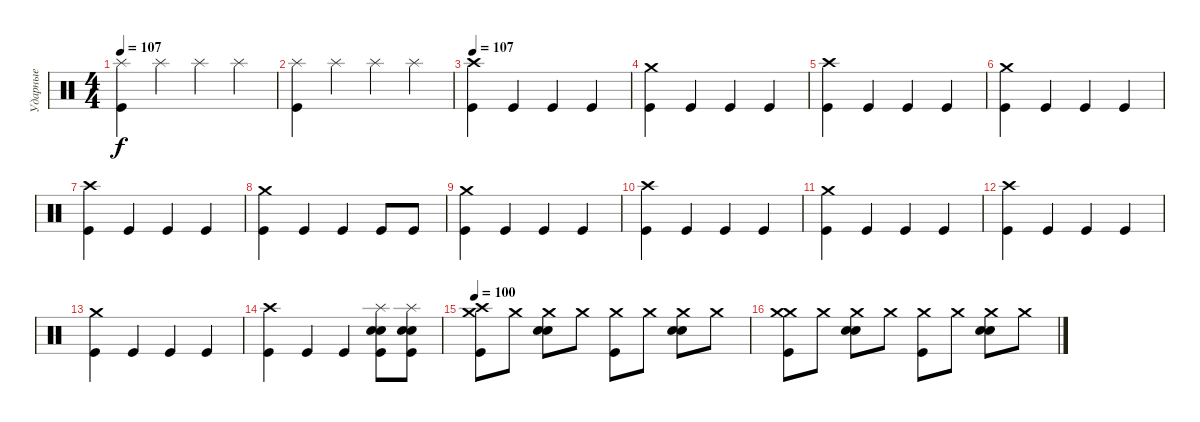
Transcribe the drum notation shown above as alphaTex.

\track ("Ударные" "Ударные") {instrument percussion}
\staff {score}
\articulation defaults
\ts (4 4)
\tempo 107
\clef neutral
\ks c
("Splash (hit)" "Kick (hit)").4{dy f} "Splash (hit)".4 "Splash (hit)".4 "Splash (hit)".4 |
("Splash (hit)" "Kick (hit)").4 "Splash (hit)".4 "Splash (hit)".4 "Splash (hit)".4 |
\tempo 107
("Crash high (hit)" "Kick (hit)").4 "Kick (hit)".4 "Kick (hit)".4 "Kick (hit)".4 |
("Crash medium (hit)" "Kick (hit)").4 "Kick (hit)".4 "Kick (hit)".4 "Kick (hit)".4 |
("Crash high (hit)" "Kick (hit)").4 "Kick (hit)".4 "Kick (hit)".4 "Kick (hit)".4 |
("Crash medium (hit)" "Kick (hit)").4 "Kick (hit)".4 "Kick (hit)".4 "Kick (hit)".4 |
("Crash high (hit)" "Kick (hit)").4 "Kick (hit)".4 "Kick (hit)".4 "Kick (hit)".4 |
("Crash medium (hit)" "Kick (hit)").4 "Kick (hit)".4 "Kick (hit)".4 "Kick (hit)".8 "Kick (hit)".8 |
("Crash medium (hit)" "Kick (hit)").4 "Kick (hit)".4 "Kick (hit)".4 "Kick (hit)".4 |
("Crash high (hit)" "Kick (hit)").4 "Kick (hit)".4 "Kick (hit)".4 "Kick (hit)".4 |
("Crash medium (hit)" "Kick (hit)").4 "Kick (hit)".4 "Kick (hit)".4 "Kick (hit)".4 |
("Crash high (hit)" "Kick (hit)").4 "Kick (hit)".4 "Kick (hit)".4 "Kick (hit)".4 |
("Crash medium (hit)" "Kick (hit)").4 "Kick (hit)".4 "Kick (hit)".4 "Kick (hit)".4 |
("Crash high (hit)" "Kick (hit)").4 "Kick (hit)".4 "Kick (hit)".4 ("Splash (hit)" "Snare (hit) 2" "Snare (hit) 2" "Kick (hit)").8 ("Splash (hit)" "Electric Snare (hit)" "Electric Snare (hit)" "Kick (hit)").8 |
\tempo 100
("Crash medium (hit)" "Crash high (hit)" "Kick (hit)").8 "Crash medium (hit)".8 ("Crash medium (hit)" "Snare (hit) 2" "Snare (hit) 2").8 "Crash medium (hit)".8 ("Crash medium (hit)" "Kick (hit)").8 "Crash medium (hit)".8 ("Crash medium (hit)" "Snare (hit) 2" "Snare (hit) 2").8 "Crash medium (hit)".8 |
("Crash medium (hit)" "Crash medium (hit)" "Kick (hit)").8 "Crash medium (hit)".8 ("Crash medium (hit)" "Snare (hit) 2" "Snare (hit) 2").8 "Crash medium (hit)".8 ("Crash medium (hit)" "Kick (hit)").8 "Crash medium (hit)".8 ("Crash medium (hit)" "Snare (hit) 2" "Snare (hit) 2").8 "Crash medium (hit)".8
